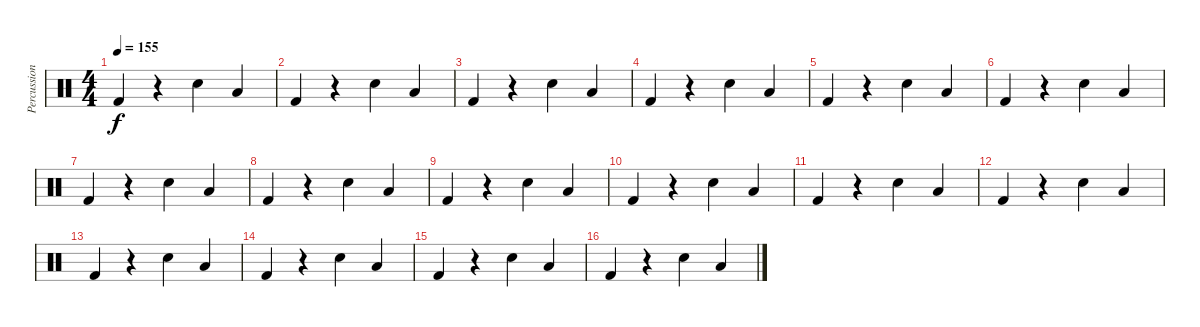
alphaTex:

\track ("Percussion" "Percussion") {instrument percussion}
\staff {score}
\articulation defaults
\ts (4 4)
\tempo 155
\clef neutral
\ks c "Kick (hit) 2".4{dy f}
r.4 "Snare (hit) 2".4 "Low Tom (hit)".4 |
"Kick (hit) 2".4 r.4 "Snare (hit) 2".4 "Low Tom (hit)".4 |
"Kick (hit) 2".4 r.4 "Snare (hit) 2".4 "Low Tom (hit)".4 |
"Kick (hit) 2".4 r.4 "Snare (hit) 2".4 "Low Tom (hit)".4 |
"Kick (hit) 2".4 r.4 "Snare (hit) 2".4 "Low Tom (hit)".4 |
"Kick (hit) 2".4 r.4 "Snare (hit) 2".4 "Low Tom (hit)".4 |
"Kick (hit) 2".4 r.4 "Snare (hit) 2".4 "Low Tom (hit)".4 |
"Kick (hit) 2".4 r.4 "Snare (hit) 2".4 "Low Tom (hit)".4 |
"Kick (hit) 2".4 r.4 "Snare (hit) 2".4 "Low Tom (hit)".4 |
"Kick (hit) 2".4 r.4 "Snare (hit) 2".4 "Low Tom (hit)".4 |
"Kick (hit) 2".4 r.4 "Snare (hit) 2".4 "Low Tom (hit)".4 |
"Kick (hit) 2".4 r.4 "Snare (hit) 2".4 "Low Tom (hit)".4 |
"Kick (hit) 2".4 r.4 "Snare (hit) 2".4 "Low Tom (hit)".4 |
"Kick (hit) 2".4 r.4 "Snare (hit) 2".4 "Low Tom (hit)".4 |
"Kick (hit) 2".4 r.4 "Snare (hit) 2".4 "Low Tom (hit)".4 |
"Kick (hit) 2".4 r.4 "Snare (hit) 2".4 "Low Tom (hit)".4
